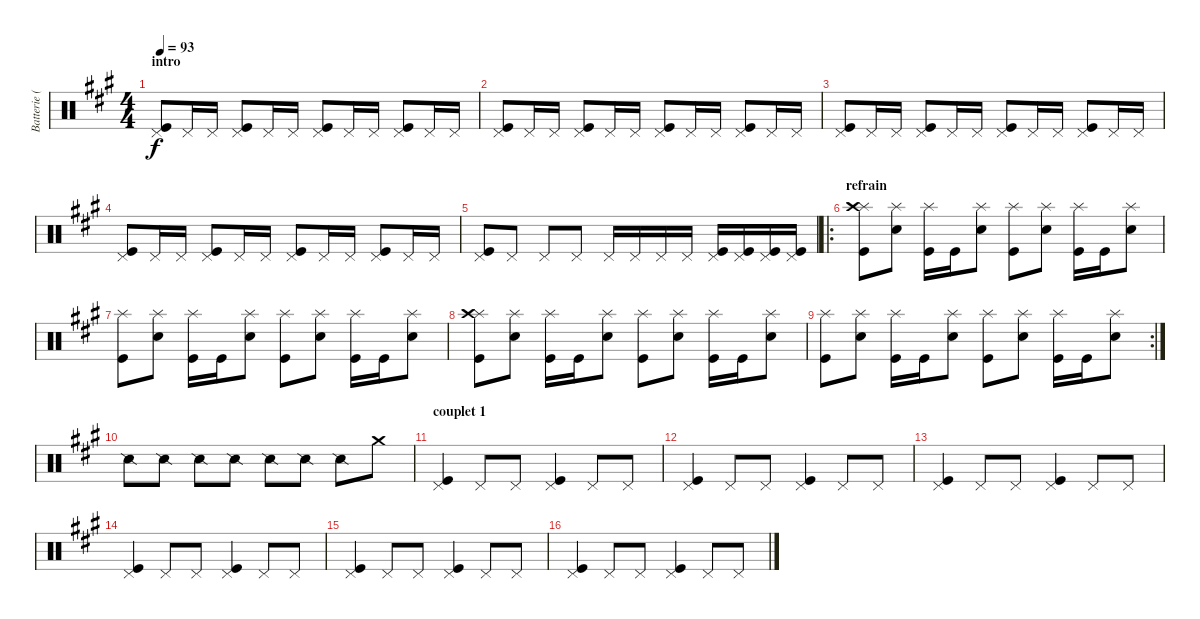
\track ("Batterie (J-E)" "Batterie (") {instrument percussion}
\staff {score}
\articulation defaults
\ts (4 4)
\section ("" "intro")
\tempo 93
\clef neutral
\ks a
("Pedal Hi-Hat (hit)" "Kick (hit)").8{dy f} "Pedal Hi-Hat (hit)".16 "Pedal Hi-Hat (hit)".16 ("Pedal Hi-Hat (hit)" "Kick (hit)").8 "Pedal Hi-Hat (hit)".16 "Pedal Hi-Hat (hit)".16 ("Pedal Hi-Hat (hit)" "Kick (hit)").8 "Pedal Hi-Hat (hit)".16 "Pedal Hi-Hat (hit)".16 ("Pedal Hi-Hat (hit)" "Kick (hit)").8 "Pedal Hi-Hat (hit)".16 "Pedal Hi-Hat (hit)".16 |
("Pedal Hi-Hat (hit)" "Kick (hit)").8 "Pedal Hi-Hat (hit)".16 "Pedal Hi-Hat (hit)".16 ("Pedal Hi-Hat (hit)" "Kick (hit)").8 "Pedal Hi-Hat (hit)".16 "Pedal Hi-Hat (hit)".16 ("Pedal Hi-Hat (hit)" "Kick (hit)").8 "Pedal Hi-Hat (hit)".16 "Pedal Hi-Hat (hit)".16 ("Pedal Hi-Hat (hit)" "Kick (hit)").8 "Pedal Hi-Hat (hit)".16 "Pedal Hi-Hat (hit)".16 |
("Pedal Hi-Hat (hit)" "Kick (hit)").8 "Pedal Hi-Hat (hit)".16 "Pedal Hi-Hat (hit)".16 ("Pedal Hi-Hat (hit)" "Kick (hit)").8 "Pedal Hi-Hat (hit)".16 "Pedal Hi-Hat (hit)".16 ("Pedal Hi-Hat (hit)" "Kick (hit)").8 "Pedal Hi-Hat (hit)".16 "Pedal Hi-Hat (hit)".16 ("Pedal Hi-Hat (hit)" "Kick (hit)").8 "Pedal Hi-Hat (hit)".16 "Pedal Hi-Hat (hit)".16 |
("Pedal Hi-Hat (hit)" "Kick (hit)").8 "Pedal Hi-Hat (hit)".16 "Pedal Hi-Hat (hit)".16 ("Pedal Hi-Hat (hit)" "Kick (hit)").8 "Pedal Hi-Hat (hit)".16 "Pedal Hi-Hat (hit)".16 ("Pedal Hi-Hat (hit)" "Kick (hit)").8 "Pedal Hi-Hat (hit)".16 "Pedal Hi-Hat (hit)".16 ("Pedal Hi-Hat (hit)" "Kick (hit)").8 "Pedal Hi-Hat (hit)".16 "Pedal Hi-Hat (hit)".16 |
("Pedal Hi-Hat (hit)" "Kick (hit)").8 "Pedal Hi-Hat (hit)".8 "Pedal Hi-Hat (hit)".8 "Pedal Hi-Hat (hit)".8 "Pedal Hi-Hat (hit)".16 "Pedal Hi-Hat (hit)".16 "Pedal Hi-Hat (hit)".16 "Pedal Hi-Hat (hit)".16 ("Pedal Hi-Hat (hit)" "Kick (hit)").16 ("Pedal Hi-Hat (hit)" "Kick (hit)").16 ("Pedal Hi-Hat (hit)" "Kick (hit)").16 ("Pedal Hi-Hat (hit)" "Kick (hit)").16 |
\ro
\section ("" "refrain")
("Splash (hit)" "Crash high (hit)" "Kick (hit)").8 ("Splash (hit)" "Snare (hit) 2").8 ("Splash (hit)" "Kick (hit)").16 "Kick (hit)".16 ("Splash (hit)" "Snare (hit) 2").8 ("Splash (hit)" "Kick (hit)").8 ("Splash (hit)" "Snare (hit) 2").8 ("Splash (hit)" "Kick (hit)").16 "Kick (hit)".16 ("Splash (hit)" "Snare (hit) 2").8 |
("Splash (hit)" "Kick (hit)").8 ("Splash (hit)" "Snare (hit) 2").8 ("Splash (hit)" "Kick (hit)").16 "Kick (hit)".16 ("Splash (hit)" "Snare (hit) 2").8 ("Splash (hit)" "Kick (hit)").8 ("Splash (hit)" "Snare (hit) 2").8 ("Splash (hit)" "Kick (hit)").16 "Kick (hit)".16 ("Splash (hit)" "Snare (hit) 2").8 |
("Splash (hit)" "Crash high (hit)" "Kick (hit)").8 ("Splash (hit)" "Snare (hit) 2").8 ("Splash (hit)" "Kick (hit)").16 "Kick (hit)".16 ("Splash (hit)" "Snare (hit) 2").8 ("Splash (hit)" "Kick (hit)").8 ("Splash (hit)" "Snare (hit) 2").8 ("Splash (hit)" "Kick (hit)").16 "Kick (hit)".16 ("Splash (hit)" "Snare (hit) 2").8 |
\rc 2
("Splash (hit)" "Kick (hit)").8 ("Splash (hit)" "Snare (hit) 2").8 ("Splash (hit)" "Kick (hit)").16 "Kick (hit)".16 ("Splash (hit)" "Snare (hit) 2").8 ("Splash (hit)" "Kick (hit)").8 ("Splash (hit)" "Snare (hit) 2").8 ("Splash (hit)" "Kick (hit)").16 "Kick (hit)".16 ("Splash (hit)" "Snare (hit) 2").8 |
"Snare (side stick) 2".8 "Snare (side stick) 2".8 "Snare (side stick) 2".8 "Snare (side stick) 2".8 "Snare (side stick) 2".8 "Snare (side stick) 2".8 "Snare (side stick) 2".8 "Crash medium (hit)".8 |
\section ("" "couplet 1")
("Pedal Hi-Hat (hit)" "Kick (hit)").4 "Pedal Hi-Hat (hit)".8 "Pedal Hi-Hat (hit)".8 ("Pedal Hi-Hat (hit)" "Kick (hit)").4 "Pedal Hi-Hat (hit)".8 "Pedal Hi-Hat (hit)".8 |
("Pedal Hi-Hat (hit)" "Kick (hit)").4 "Pedal Hi-Hat (hit)".8 "Pedal Hi-Hat (hit)".8 ("Pedal Hi-Hat (hit)" "Kick (hit)").4 "Pedal Hi-Hat (hit)".8 "Pedal Hi-Hat (hit)".8 |
("Pedal Hi-Hat (hit)" "Kick (hit)").4 "Pedal Hi-Hat (hit)".8 "Pedal Hi-Hat (hit)".8 ("Pedal Hi-Hat (hit)" "Kick (hit)").4 "Pedal Hi-Hat (hit)".8 "Pedal Hi-Hat (hit)".8 |
("Pedal Hi-Hat (hit)" "Kick (hit)").4 "Pedal Hi-Hat (hit)".8 "Pedal Hi-Hat (hit)".8 ("Pedal Hi-Hat (hit)" "Kick (hit)").4 "Pedal Hi-Hat (hit)".8 "Pedal Hi-Hat (hit)".8 |
("Pedal Hi-Hat (hit)" "Kick (hit)").4 "Pedal Hi-Hat (hit)".8 "Pedal Hi-Hat (hit)".8 ("Pedal Hi-Hat (hit)" "Kick (hit)").4 "Pedal Hi-Hat (hit)".8 "Pedal Hi-Hat (hit)".8 |
("Pedal Hi-Hat (hit)" "Kick (hit)").4 "Pedal Hi-Hat (hit)".8 "Pedal Hi-Hat (hit)".8 ("Pedal Hi-Hat (hit)" "Kick (hit)").4 "Pedal Hi-Hat (hit)".8 "Pedal Hi-Hat (hit)".8
